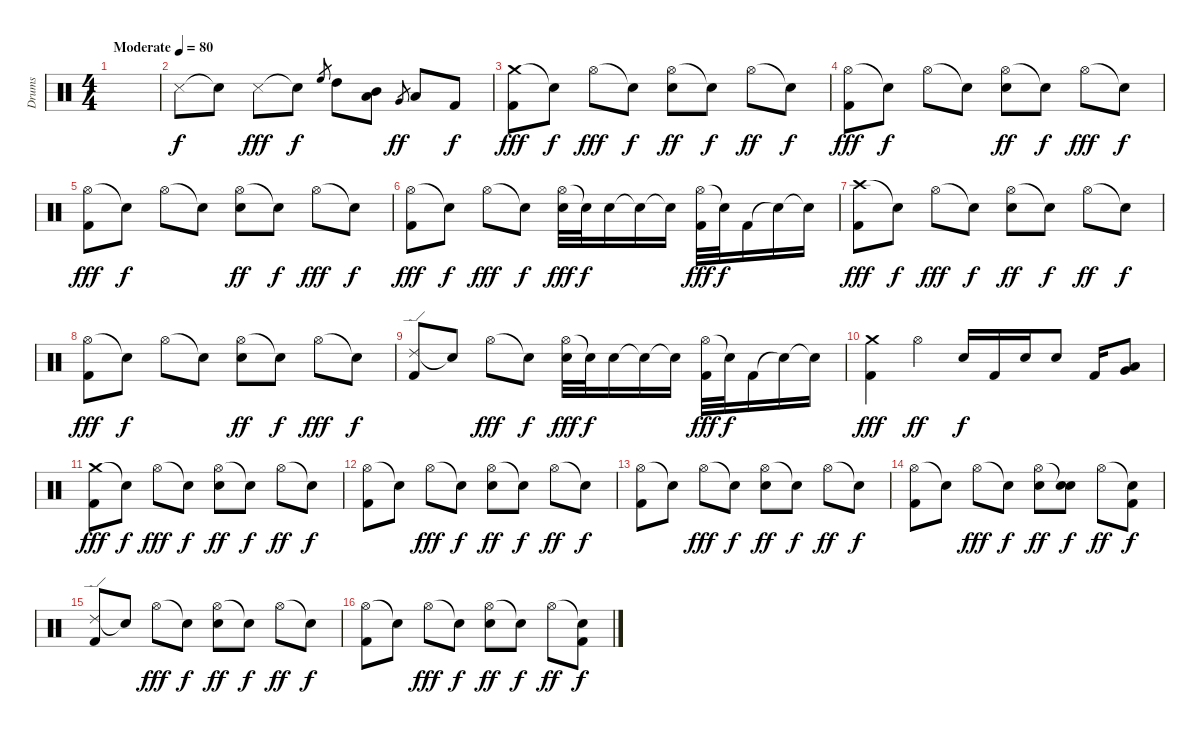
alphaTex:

\track ("Drums" "Drums") {instrument percussion}
\staff {score}
\articulation defaults
\ts (4 4)
\tempo (80 "Moderate")
\clef neutral
\ks c
|
"Snare (side stick) 3".8 "Snare (hit)"{t}.8{dy f} "Snare (side stick) 3".8{dy fff} "Snare (hit)"{t}.8{dy f} "High Floor Tom (hit)".8{gr} "High Tom (hit)".8 ("Mid Tom (hit)" "Low Tom (hit)").8 "Very Low Tom (hit)".8{gr dy ff} "Low Floor Tom (hit)".8 "Kick (hit) 2".8{dy f} |
("Crash medium (hit)" "Kick (hit) 2").8{dy fff} "Snare (hit)"{t}.8{dy f} "Hi-Hat (open)".8{dy fff} "Snare (hit)"{t}.8{dy f} ("Hi-Hat (open)" "Electric Snare (hit)").8{dy ff} "Snare (hit)"{t}.8{dy f} "Hi-Hat (open)".8{dy ff} "Snare (hit)"{t}.8{dy f} |
("Hi-Hat (open)" "Kick (hit) 2").8{dy fff} "Snare (hit)"{t}.8{dy f} "Hi-Hat (open)".8 "Snare (hit)"{t}.8 ("Hi-Hat (open)" "Electric Snare (hit)").8{dy ff} "Snare (hit)"{t}.8{dy f} "Hi-Hat (open)".8{dy fff} "Snare (hit)"{t}.8{dy f} |
("Hi-Hat (open)" "Kick (hit) 2").8{dy fff} "Snare (hit)"{t}.8{dy f} "Hi-Hat (open)".8 "Snare (hit)"{t}.8 ("Hi-Hat (open)" "Electric Snare (hit)").8{dy ff} "Snare (hit)"{t}.8{dy f} "Hi-Hat (open)".8{dy fff} "Snare (hit)"{t}.8{dy f} |
("Hi-Hat (open)" "Kick (hit) 2").8{dy fff} "Snare (hit)"{t}.8{dy f} "Hi-Hat (open)".8{dy fff} "Snare (hit)"{t}.8{dy f} ("Hi-Hat (open)" "Electric Snare (hit)").32{dy fff} "Snare (hit)"{t}.32{dy f} "Electric Snare (hit)".16 "Snare (hit)"{t}.16 "Snare (hit)"{t}.16 ("Hi-Hat (open)" "Kick (hit) 2").32{dy fff} "Snare (hit)"{t}.32{dy f} "Kick (hit) 2".16 "Snare (hit)"{t}.16 "Snare (hit)"{t}.16 |
("Crash high (hit)" "Kick (hit) 2").8{dy fff} "Snare (hit)"{t}.8{dy f} "Hi-Hat (open)".8{dy fff} "Snare (hit)"{t}.8{dy f} ("Hi-Hat (open)" "Electric Snare (hit)").8{dy ff} "Snare (hit)"{t}.8{dy f} "Hi-Hat (open)".8{dy ff} "Snare (hit)"{t}.8{dy f} |
("Hi-Hat (open)" "Kick (hit) 2").8{dy fff} "Snare (hit)"{t}.8{dy f} "Hi-Hat (open)".8 "Snare (hit)"{t}.8 ("Hi-Hat (open)" "Electric Snare (hit)").8{dy ff} "Snare (hit)"{t}.8{dy f} "Hi-Hat (open)".8{dy fff} "Snare (hit)"{t}.8{dy f} |
("Ride (edge) 2" "Kick (hit) 2").8 "Snare (hit)"{t}.8 "Hi-Hat (open)".8{dy fff} "Snare (hit)"{t}.8{dy f} ("Hi-Hat (open)" "Electric Snare (hit)").32{dy fff} "Snare (hit)"{t}.32{dy f} "Electric Snare (hit)".16 "Snare (hit)"{t}.16 "Snare (hit)"{t}.16 ("Hi-Hat (open)" "Kick (hit) 2").32{dy fff} "Snare (hit)"{t}.32{dy f} "Kick (hit) 2".16 "Snare (hit)"{t}.16 "Snare (hit)"{t}.16 |
("Crash medium (hit)" "Kick (hit) 2").4{dy fff} "Hi-Hat (open)".4{dy ff} "Snare (hit) 2".16{dy f} "Kick (hit) 2".16 "Snare (hit) 2".16 "Snare (hit) 2".8 "Kick (hit) 2".16 ("Very Low Tom (hit)" "Low Floor Tom (hit)").8 |
("Crash medium (hit)" "Kick (hit) 2").8{dy fff} "Snare (hit)"{t}.8{dy f} "Hi-Hat (open)".8{dy fff} "Snare (hit)"{t}.8{dy f} ("Hi-Hat (open)" "Electric Snare (hit)").8{dy ff} "Snare (hit)"{t}.8{dy f} "Hi-Hat (open)".8{dy ff} "Snare (hit)"{t}.8{dy f} |
("Hi-Hat (open)" "Kick (hit) 2").8 "Snare (hit)"{t}.8 "Hi-Hat (open)".8{dy fff} "Snare (hit)"{t}.8{dy f} ("Hi-Hat (open)" "Electric Snare (hit)").8{dy ff} "Snare (hit)"{t}.8{dy f} "Hi-Hat (open)".8{dy ff} "Snare (hit)"{t}.8{dy f} |
("Hi-Hat (open)" "Kick (hit) 2").8 "Snare (hit)"{t}.8 "Hi-Hat (open)".8{dy fff} "Snare (hit)"{t}.8{dy f} ("Hi-Hat (open)" "Electric Snare (hit)").8{dy ff} "Snare (hit)"{t}.8{dy f} "Hi-Hat (open)".8{dy ff} "Snare (hit)"{t}.8{dy f} |
("Hi-Hat (open)" "Kick (hit) 2").8 "Snare (hit)"{t}.8 "Hi-Hat (open)".8{dy fff} "Snare (hit)"{t}.8{dy f} ("Hi-Hat (open)" "Electric Snare (hit)").8{dy ff} ("Snare (hit)"{t} "Electric Snare (hit)").8{dy f} "Hi-Hat (open)".8{dy ff} ("Snare (hit)"{t} "Kick (hit) 2").8{dy f} |
("Ride (edge) 2" "Kick (hit) 2").8 "Snare (hit)"{t}.8 "Hi-Hat (open)".8{dy fff} "Snare (hit)"{t}.8{dy f} ("Hi-Hat (open)" "Electric Snare (hit)").8{dy ff} "Snare (hit)"{t}.8{dy f} "Hi-Hat (open)".8{dy ff} "Snare (hit)"{t}.8{dy f} |
("Hi-Hat (open)" "Kick (hit) 2").8 "Snare (hit)"{t}.8 "Hi-Hat (open)".8{dy fff} "Snare (hit)"{t}.8{dy f} ("Hi-Hat (open)" "Electric Snare (hit)").8{dy ff} "Snare (hit)"{t}.8{dy f} "Hi-Hat (open)".8{dy ff} ("Snare (hit)"{t} "Kick (hit) 2").8{dy f}
